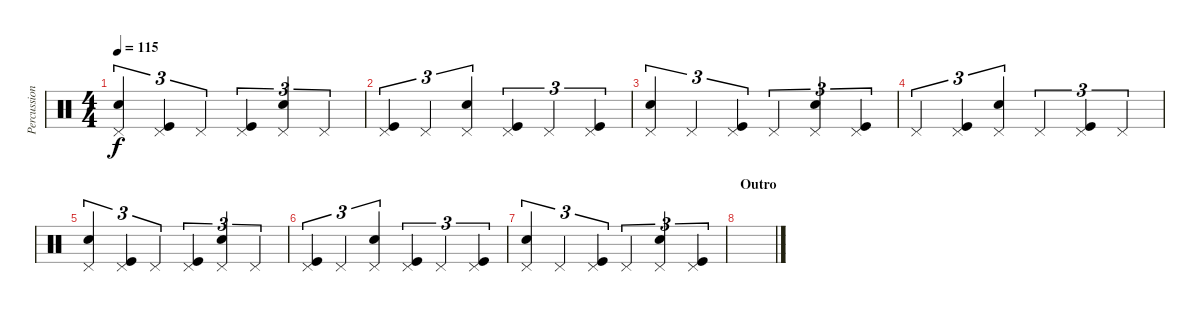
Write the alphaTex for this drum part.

\track ("Percussion" "Percussion") {instrument percussion}
\staff {score}
\articulation defaults
\ts (4 4)
\tempo 115
\clef neutral
\ks c
("Pedal Hi-Hat (hit)" "Electric Snare (hit)").4{tu (3 2) dy f} ("Pedal Hi-Hat (hit)" "Kick (hit)").4{tu (3 2)} "Pedal Hi-Hat (hit)".4{tu (3 2)} ("Pedal Hi-Hat (hit)" "Kick (hit)").4{tu (3 2)} ("Pedal Hi-Hat (hit)" "Electric Snare (hit)").4{tu (3 2)} "Pedal Hi-Hat (hit)".4{tu (3 2)} |
("Pedal Hi-Hat (hit)" "Kick (hit)").4{tu (3 2)} "Pedal Hi-Hat (hit)".4{tu (3 2)} ("Pedal Hi-Hat (hit)" "Electric Snare (hit)").4{tu (3 2)} ("Pedal Hi-Hat (hit)" "Kick (hit)").4{tu (3 2)} "Pedal Hi-Hat (hit)".4{tu (3 2)} ("Pedal Hi-Hat (hit)" "Kick (hit)").4{tu (3 2)} |
("Pedal Hi-Hat (hit)" "Electric Snare (hit)").4{tu (3 2)} "Pedal Hi-Hat (hit)".4{tu (3 2)} ("Pedal Hi-Hat (hit)" "Kick (hit)").4{tu (3 2)} "Pedal Hi-Hat (hit)".4{tu (3 2)} ("Pedal Hi-Hat (hit)" "Electric Snare (hit)").4{tu (3 2)} ("Pedal Hi-Hat (hit)" "Kick (hit)").4{tu (3 2)} |
"Pedal Hi-Hat (hit)".4{tu (3 2)} ("Pedal Hi-Hat (hit)" "Kick (hit)").4{tu (3 2)} ("Pedal Hi-Hat (hit)" "Electric Snare (hit)").4{tu (3 2)} "Pedal Hi-Hat (hit)".4{tu (3 2)} ("Pedal Hi-Hat (hit)" "Kick (hit)").4{tu (3 2)} "Pedal Hi-Hat (hit)".4{tu (3 2)} |
("Pedal Hi-Hat (hit)" "Electric Snare (hit)").4{tu (3 2)} ("Pedal Hi-Hat (hit)" "Kick (hit)").4{tu (3 2)} "Pedal Hi-Hat (hit)".4{tu (3 2)} ("Pedal Hi-Hat (hit)" "Kick (hit)").4{tu (3 2)} ("Pedal Hi-Hat (hit)" "Electric Snare (hit)").4{tu (3 2)} "Pedal Hi-Hat (hit)".4{tu (3 2)} |
("Pedal Hi-Hat (hit)" "Kick (hit)").4{tu (3 2)} "Pedal Hi-Hat (hit)".4{tu (3 2)} ("Pedal Hi-Hat (hit)" "Electric Snare (hit)").4{tu (3 2)} ("Pedal Hi-Hat (hit)" "Kick (hit)").4{tu (3 2)} "Pedal Hi-Hat (hit)".4{tu (3 2)} ("Pedal Hi-Hat (hit)" "Kick (hit)").4{tu (3 2)} |
("Pedal Hi-Hat (hit)" "Electric Snare (hit)").4{tu (3 2) volume 0} "Pedal Hi-Hat (hit)".4{tu (3 2)} ("Pedal Hi-Hat (hit)" "Kick (hit)").4{tu (3 2)} "Pedal Hi-Hat (hit)".4{tu (3 2)} ("Pedal Hi-Hat (hit)" "Electric Snare (hit)").4{tu (3 2)} ("Pedal Hi-Hat (hit)" "Kick (hit)").4{tu (3 2)} |
\section ("" "Outro")
